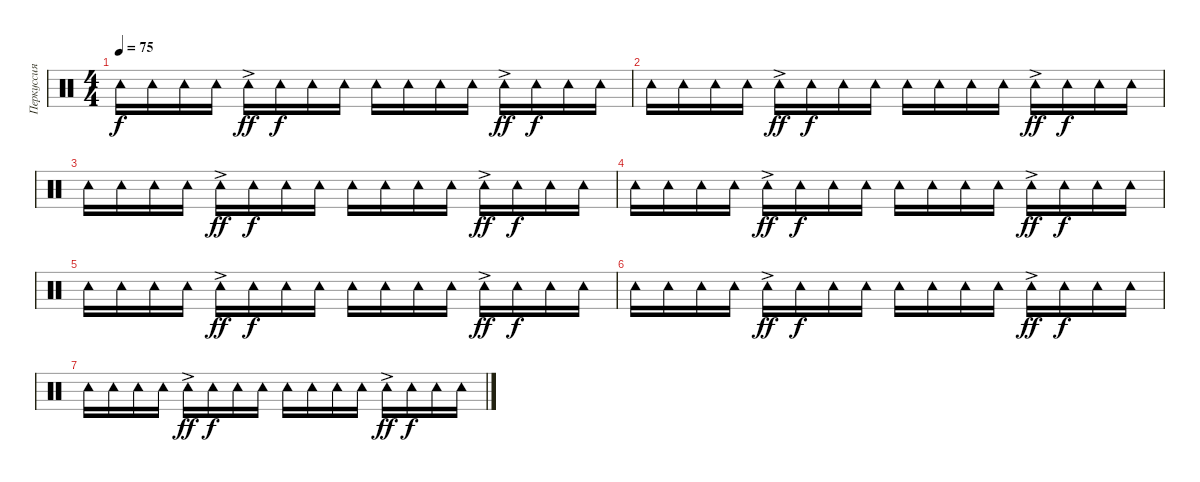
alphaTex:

\track ("Перкуссия" "Перкуссия") {instrument percussion}
\staff {score}
\articulation defaults
\ts (4 4)
\tempo 75
\clef neutral
\ks c "Tambourine (hit)".16{dy f} "Tambourine (hit)".16 "Tambourine (hit)".16 "Tambourine (hit)".16 "Tambourine (hit)"{ac}.16{dy ff} "Tambourine (hit)".16{dy f} "Tambourine (hit)".16 "Tambourine (hit)".16 "Tambourine (hit)".16 "Tambourine (hit)".16 "Tambourine (hit)".16 "Tambourine (hit)".16 "Tambourine (hit)"{ac}.16{dy ff} "Tambourine (hit)".16{dy f} "Tambourine (hit)".16 "Tambourine (hit)".16
|
"Tambourine (hit)".16 "Tambourine (hit)".16 "Tambourine (hit)".16 "Tambourine (hit)".16 "Tambourine (hit)"{ac}.16{dy ff} "Tambourine (hit)".16{dy f} "Tambourine (hit)".16 "Tambourine (hit)".16 "Tambourine (hit)".16 "Tambourine (hit)".16 "Tambourine (hit)".16 "Tambourine (hit)".16 "Tambourine (hit)"{ac}.16{dy ff} "Tambourine (hit)".16{dy f} "Tambourine (hit)".16 "Tambourine (hit)".16 |
"Tambourine (hit)".16 "Tambourine (hit)".16 "Tambourine (hit)".16 "Tambourine (hit)".16 "Tambourine (hit)"{ac}.16{dy ff} "Tambourine (hit)".16{dy f} "Tambourine (hit)".16 "Tambourine (hit)".16 "Tambourine (hit)".16 "Tambourine (hit)".16 "Tambourine (hit)".16 "Tambourine (hit)".16 "Tambourine (hit)"{ac}.16{dy ff} "Tambourine (hit)".16{dy f} "Tambourine (hit)".16 "Tambourine (hit)".16 |
"Tambourine (hit)".16 "Tambourine (hit)".16 "Tambourine (hit)".16 "Tambourine (hit)".16 "Tambourine (hit)"{ac}.16{dy ff} "Tambourine (hit)".16{dy f} "Tambourine (hit)".16 "Tambourine (hit)".16 "Tambourine (hit)".16 "Tambourine (hit)".16 "Tambourine (hit)".16 "Tambourine (hit)".16 "Tambourine (hit)"{ac}.16{dy ff} "Tambourine (hit)".16{dy f} "Tambourine (hit)".16 "Tambourine (hit)".16 |
"Tambourine (hit)".16 "Tambourine (hit)".16 "Tambourine (hit)".16 "Tambourine (hit)".16 "Tambourine (hit)"{ac}.16{dy ff} "Tambourine (hit)".16{dy f} "Tambourine (hit)".16 "Tambourine (hit)".16 "Tambourine (hit)".16 "Tambourine (hit)".16 "Tambourine (hit)".16 "Tambourine (hit)".16 "Tambourine (hit)"{ac}.16{dy ff} "Tambourine (hit)".16{dy f} "Tambourine (hit)".16 "Tambourine (hit)".16 |
"Tambourine (hit)".16 "Tambourine (hit)".16 "Tambourine (hit)".16 "Tambourine (hit)".16 "Tambourine (hit)"{ac}.16{dy ff} "Tambourine (hit)".16{dy f} "Tambourine (hit)".16 "Tambourine (hit)".16 "Tambourine (hit)".16 "Tambourine (hit)".16 "Tambourine (hit)".16 "Tambourine (hit)".16 "Tambourine (hit)"{ac}.16{dy ff} "Tambourine (hit)".16{dy f} "Tambourine (hit)".16 "Tambourine (hit)".16 |
"Tambourine (hit)".16 "Tambourine (hit)".16 "Tambourine (hit)".16 "Tambourine (hit)".16 "Tambourine (hit)"{ac}.16{dy ff} "Tambourine (hit)".16{dy f} "Tambourine (hit)".16 "Tambourine (hit)".16 "Tambourine (hit)".16 "Tambourine (hit)".16 "Tambourine (hit)".16 "Tambourine (hit)".16 "Tambourine (hit)"{ac}.16{dy ff} "Tambourine (hit)".16{dy f} "Tambourine (hit)".16 "Tambourine (hit)".16
